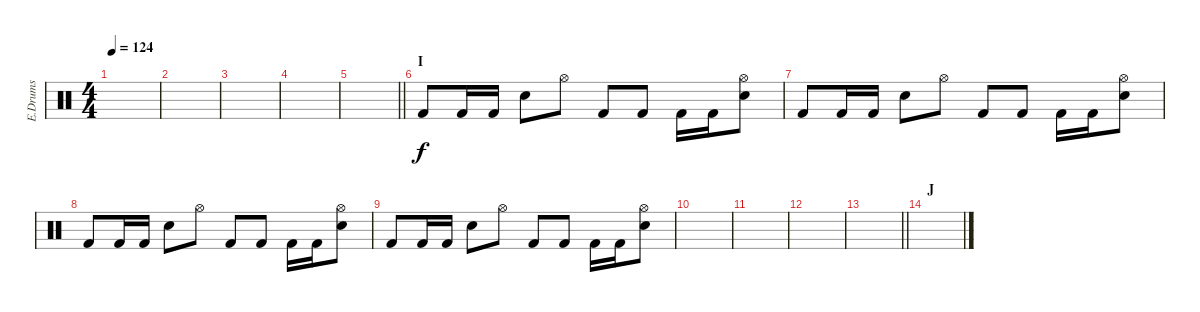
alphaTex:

\track ("E.Drums" "E.Drums") {instrument percussion}
\staff {score}
\articulation defaults
\ts (4 4)
\tempo 124
\clef neutral
\ks c
|
|
|
|
\barLineRight lightlight
|
\section ("" "I")
"Kick (hit) 2".8 "Kick (hit) 2".16 "Kick (hit) 2".16 "Snare (hit) 2".8 "Hi-Hat (open)".8 "Kick (hit) 2".8 "Kick (hit) 2".8 "Kick (hit) 2".16 "Kick (hit) 2".16 ("Hi-Hat (open)" "Snare (hit) 2").8 |
"Kick (hit) 2".8 "Kick (hit) 2".16 "Kick (hit) 2".16 "Snare (hit) 2".8 "Hi-Hat (open)".8 "Kick (hit) 2".8 "Kick (hit) 2".8 "Kick (hit) 2".16 "Kick (hit) 2".16 ("Hi-Hat (open)" "Snare (hit) 2").8 |
"Kick (hit) 2".8 "Kick (hit) 2".16 "Kick (hit) 2".16 "Snare (hit) 2".8 "Hi-Hat (open)".8 "Kick (hit) 2".8 "Kick (hit) 2".8 "Kick (hit) 2".16 "Kick (hit) 2".16 ("Hi-Hat (open)" "Snare (hit) 2").8 |
"Kick (hit) 2".8 "Kick (hit) 2".16 "Kick (hit) 2".16 "Snare (hit) 2".8 "Hi-Hat (open)".8 "Kick (hit) 2".8 "Kick (hit) 2".8 "Kick (hit) 2".16 "Kick (hit) 2".16 ("Hi-Hat (open)" "Snare (hit) 2").8 |
|
|
|
\barLineRight lightlight
|
\section ("" "J")
